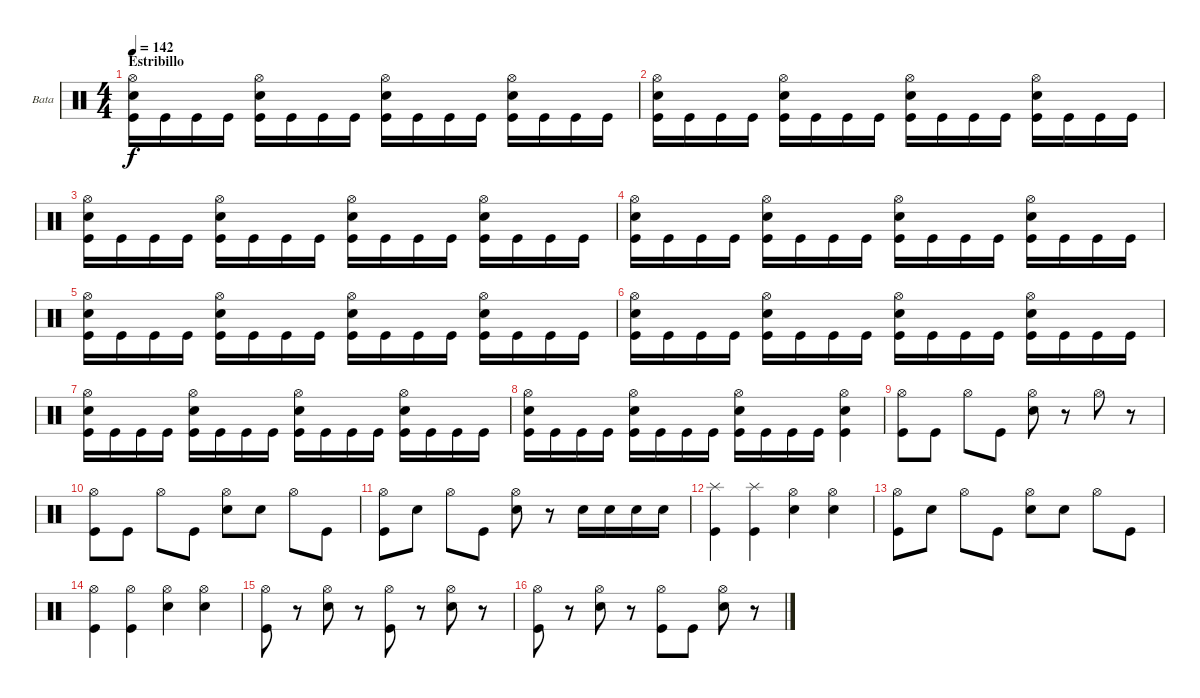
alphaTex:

\bracketExtendMode groupsimilarinstruments
\firstSystemTrackNameOrientation horizontal
\otherSystemsTrackNameOrientation horizontal
\track ("Bateria" "Bata") {instrument percussion}
\staff {score}
\articulation defaults
\ts (4 4)
\section ("" "Estribillo")
\tempo 142
\clef neutral
\ks c
("Kick (hit)" "Snare (hit) 2" "Hi-Hat (open)").16{dy f} "Kick (hit)".16 "Kick (hit)".16 "Kick (hit)".16 ("Kick (hit)" "Snare (hit) 2" "Hi-Hat (open)").16 "Kick (hit)".16 "Kick (hit)".16 "Kick (hit)".16 ("Kick (hit)" "Snare (hit) 2" "Hi-Hat (open)").16 "Kick (hit)".16 "Kick (hit)".16 "Kick (hit)".16 ("Kick (hit)" "Snare (hit) 2" "Hi-Hat (open)").16 "Kick (hit)".16 "Kick (hit)".16 "Kick (hit)".16 |
("Kick (hit)" "Snare (hit) 2" "Hi-Hat (open)").16 "Kick (hit)".16 "Kick (hit)".16 "Kick (hit)".16 ("Kick (hit)" "Snare (hit) 2" "Hi-Hat (open)").16 "Kick (hit)".16 "Kick (hit)".16 "Kick (hit)".16 ("Kick (hit)" "Snare (hit) 2" "Hi-Hat (open)").16 "Kick (hit)".16 "Kick (hit)".16 "Kick (hit)".16 ("Kick (hit)" "Snare (hit) 2" "Hi-Hat (open)").16 "Kick (hit)".16 "Kick (hit)".16 "Kick (hit)".16 |
("Kick (hit)" "Snare (hit) 2" "Hi-Hat (open)").16 "Kick (hit)".16 "Kick (hit)".16 "Kick (hit)".16 ("Kick (hit)" "Snare (hit) 2" "Hi-Hat (open)").16 "Kick (hit)".16 "Kick (hit)".16 "Kick (hit)".16 ("Kick (hit)" "Snare (hit) 2" "Hi-Hat (open)").16 "Kick (hit)".16 "Kick (hit)".16 "Kick (hit)".16 ("Kick (hit)" "Snare (hit) 2" "Hi-Hat (open)").16 "Kick (hit)".16 "Kick (hit)".16 "Kick (hit)".16 |
("Kick (hit)" "Snare (hit) 2" "Hi-Hat (open)").16 "Kick (hit)".16 "Kick (hit)".16 "Kick (hit)".16 ("Kick (hit)" "Snare (hit) 2" "Hi-Hat (open)").16 "Kick (hit)".16 "Kick (hit)".16 "Kick (hit)".16 ("Kick (hit)" "Snare (hit) 2" "Hi-Hat (open)").16 "Kick (hit)".16 "Kick (hit)".16 "Kick (hit)".16 ("Kick (hit)" "Snare (hit) 2" "Hi-Hat (open)").16 "Kick (hit)".16 "Kick (hit)".16 "Kick (hit)".16 |
("Kick (hit)" "Snare (hit) 2" "Hi-Hat (open)").16 "Kick (hit)".16 "Kick (hit)".16 "Kick (hit)".16 ("Kick (hit)" "Snare (hit) 2" "Hi-Hat (open)").16 "Kick (hit)".16 "Kick (hit)".16 "Kick (hit)".16 ("Kick (hit)" "Snare (hit) 2" "Hi-Hat (open)").16 "Kick (hit)".16 "Kick (hit)".16 "Kick (hit)".16 ("Kick (hit)" "Snare (hit) 2" "Hi-Hat (open)").16 "Kick (hit)".16 "Kick (hit)".16 "Kick (hit)".16 |
("Kick (hit)" "Snare (hit) 2" "Hi-Hat (open)").16 "Kick (hit)".16 "Kick (hit)".16 "Kick (hit)".16 ("Kick (hit)" "Snare (hit) 2" "Hi-Hat (open)").16 "Kick (hit)".16 "Kick (hit)".16 "Kick (hit)".16 ("Kick (hit)" "Snare (hit) 2" "Hi-Hat (open)").16 "Kick (hit)".16 "Kick (hit)".16 "Kick (hit)".16 ("Kick (hit)" "Snare (hit) 2" "Hi-Hat (open)").16 "Kick (hit)".16 "Kick (hit)".16 "Kick (hit)".16 |
("Kick (hit)" "Snare (hit) 2" "Hi-Hat (open)").16 "Kick (hit)".16 "Kick (hit)".16 "Kick (hit)".16 ("Kick (hit)" "Snare (hit) 2" "Hi-Hat (open)").16 "Kick (hit)".16 "Kick (hit)".16 "Kick (hit)".16 ("Kick (hit)" "Snare (hit) 2" "Hi-Hat (open)").16 "Kick (hit)".16 "Kick (hit)".16 "Kick (hit)".16 ("Kick (hit)" "Snare (hit) 2" "Hi-Hat (open)").16 "Kick (hit)".16 "Kick (hit)".16 "Kick (hit)".16 |
("Kick (hit)" "Snare (hit) 2" "Hi-Hat (open)").16 "Kick (hit)".16 "Kick (hit)".16 "Kick (hit)".16 ("Kick (hit)" "Snare (hit) 2" "Hi-Hat (open)").16 "Kick (hit)".16 "Kick (hit)".16 "Kick (hit)".16 ("Kick (hit)" "Snare (hit) 2" "Hi-Hat (open)").16 "Kick (hit)".16 "Kick (hit)".16 "Kick (hit)".16 ("Kick (hit)" "Snare (hit) 2" "Hi-Hat (open)").4 |
("Hi-Hat (open)" "Kick (hit)").8 "Kick (hit)".8 "Hi-Hat (open)".8 "Kick (hit)".8 ("Hi-Hat (open)" "Snare (hit) 2").8 r.8 "Hi-Hat (open)".8 r.8 |
("Hi-Hat (open)" "Kick (hit)").8 "Kick (hit)".8 "Hi-Hat (open)".8 "Kick (hit)".8 ("Hi-Hat (open)" "Snare (hit) 2").8 "Snare (hit) 2".8 "Hi-Hat (open)".8 "Kick (hit)".8 |
("Hi-Hat (open)" "Kick (hit)").8 "Snare (hit) 2".8 "Hi-Hat (open)".8 "Kick (hit)".8 ("Hi-Hat (open)" "Snare (hit) 2").8 r.8 "Snare (hit) 2".16 "Snare (hit) 2".16 "Snare (hit) 2".16 "Snare (hit) 2".16 |
("Kick (hit)" "Splash (hit)").4 ("Kick (hit)" "Splash (hit)").4 ("Snare (hit) 2" "Hi-Hat (open)").4 ("Snare (hit) 2" "Hi-Hat (open)").4 |
("Hi-Hat (open)" "Kick (hit)").8 "Snare (hit) 2".8 "Hi-Hat (open)".8 "Kick (hit)".8 ("Hi-Hat (open)" "Snare (hit) 2").8 "Snare (hit) 2".8 "Hi-Hat (open)".8 "Kick (hit)".8 |
("Kick (hit)" "Hi-Hat (open)").4 ("Kick (hit)" "Hi-Hat (open)").4 ("Snare (hit) 2" "Hi-Hat (open)").4 ("Snare (hit) 2" "Hi-Hat (open)").4 |
("Kick (hit)" "Hi-Hat (open)").8 r.8 ("Hi-Hat (open)" "Snare (hit) 2").8 r.8 ("Hi-Hat (open)" "Kick (hit)").8 r.8 ("Hi-Hat (open)" "Snare (hit) 2").8 r.8 |
("Kick (hit)" "Hi-Hat (open)").8 r.8 ("Hi-Hat (open)" "Snare (hit) 2").8 r.8 ("Hi-Hat (open)" "Kick (hit)").8 "Kick (hit)".8 ("Hi-Hat (open)" "Snare (hit) 2").8 r.8
